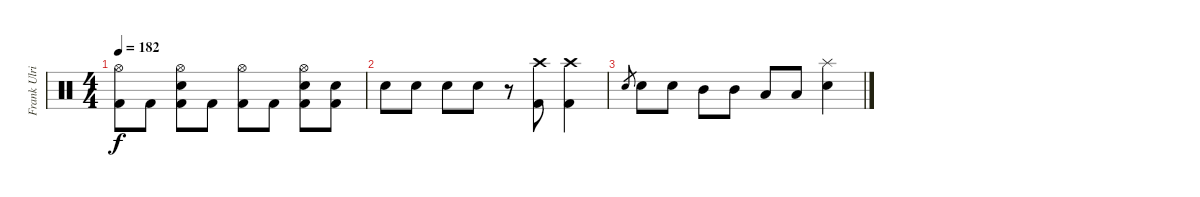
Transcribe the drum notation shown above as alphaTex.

\track ("Frank Ulrich" "Frank Ulri") {instrument percussion}
\staff {score}
\articulation defaults
\ts (4 4)
\tempo 182
\clef neutral
\ks c
("Hi-Hat (open)" "Kick (hit) 2").8{dy f} "Kick (hit) 2".8 ("Hi-Hat (open)" "Snare (hit) 2" "Kick (hit) 2").8 "Kick (hit) 2".8 ("Hi-Hat (open)" "Kick (hit) 2").8 "Kick (hit) 2".8 ("Hi-Hat (open)" "Snare (hit) 2" "Kick (hit) 2").8 ("Snare (hit) 2" "Kick (hit) 2").8 |
"Snare (hit) 2".8 "Snare (hit) 2".8 "Snare (hit) 2".8 "Snare (hit) 2".8 r.8 ("Crash high (hit)" "Kick (hit) 2").8 ("Crash high (hit)" "Kick (hit) 2").4 |
"Snare (hit) 2".8{gr} "Snare (hit) 2".8 "Snare (hit) 2".8 "Mid Tom (hit)".8 "Mid Tom (hit)".8 "Low Tom (hit)".8 "Low Tom (hit)".8 ("Splash (hit)" "Snare (hit) 2").4
